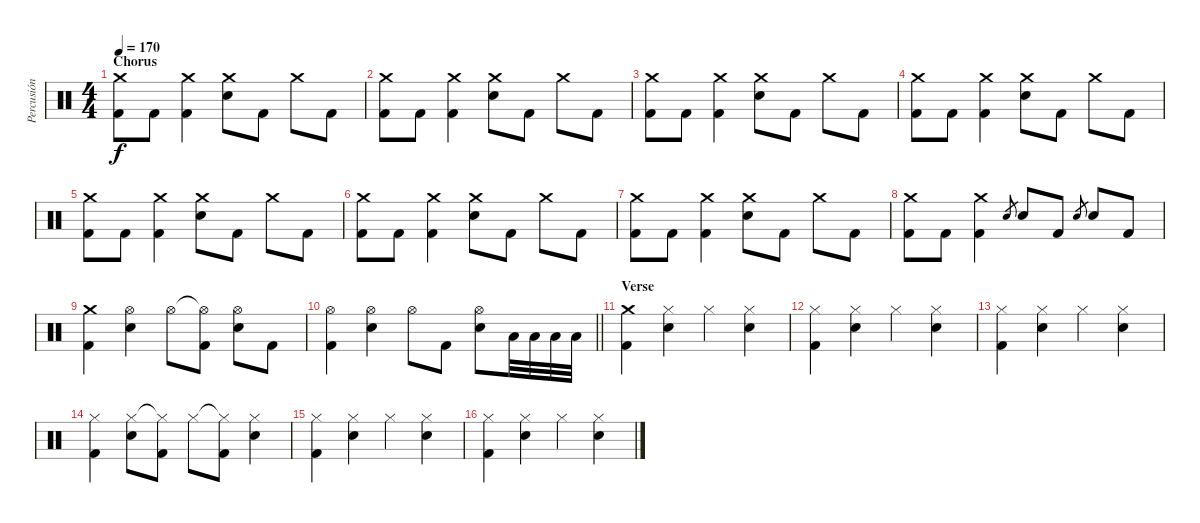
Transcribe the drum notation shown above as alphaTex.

\track ("Percusión" "Percusión") {instrument percussion}
\staff {score}
\articulation defaults
\ts (4 4)
\section ("" "Chorus")
\tempo 170
\clef neutral
\ks c
("Crash medium (hit)" "Kick (hit) 2").8{dy f} "Kick (hit) 2".8 ("Crash medium (hit)" "Kick (hit) 2").4 ("Crash medium (hit)" "Electric Snare (hit)").8 "Kick (hit) 2".8 "Crash medium (hit)".8 "Kick (hit) 2".8 |
("Crash medium (hit)" "Kick (hit) 2").8 "Kick (hit) 2".8 ("Crash medium (hit)" "Kick (hit) 2").4 ("Crash medium (hit)" "Electric Snare (hit)").8 "Kick (hit) 2".8 "Crash medium (hit)".8 "Kick (hit) 2".8 |
("Crash medium (hit)" "Kick (hit) 2").8 "Kick (hit) 2".8 ("Crash medium (hit)" "Kick (hit) 2").4 ("Crash medium (hit)" "Electric Snare (hit)").8 "Kick (hit) 2".8 "Crash medium (hit)".8 "Kick (hit) 2".8 |
("Crash medium (hit)" "Kick (hit) 2").8 "Kick (hit) 2".8 ("Crash medium (hit)" "Kick (hit) 2").4 ("Crash medium (hit)" "Electric Snare (hit)").8 "Kick (hit) 2".8 "Crash medium (hit)".8 "Kick (hit) 2".8 |
("Crash medium (hit)" "Kick (hit) 2").8 "Kick (hit) 2".8 ("Crash medium (hit)" "Kick (hit) 2").4 ("Crash medium (hit)" "Electric Snare (hit)").8 "Kick (hit) 2".8 "Crash medium (hit)".8 "Kick (hit) 2".8 |
("Crash medium (hit)" "Kick (hit) 2").8 "Kick (hit) 2".8 ("Crash medium (hit)" "Kick (hit) 2").4 ("Crash medium (hit)" "Electric Snare (hit)").8 "Kick (hit) 2".8 "Crash medium (hit)".8 "Kick (hit) 2".8 |
("Crash medium (hit)" "Kick (hit) 2").8 "Kick (hit) 2".8 ("Crash medium (hit)" "Kick (hit) 2").4 ("Crash medium (hit)" "Electric Snare (hit)").8 "Kick (hit) 2".8 "Crash medium (hit)".8 "Kick (hit) 2".8 |
("Crash medium (hit)" "Kick (hit) 2").8 "Kick (hit) 2".8 ("Crash medium (hit)" "Kick (hit) 2").4 "Electric Snare (hit)".8{gr} "Electric Snare (hit)".8 "Kick (hit) 2".8 "Electric Snare (hit)".8{gr} "Electric Snare (hit)".8 "Kick (hit) 2".8 |
("Crash medium (hit)" "Kick (hit) 2").4 ("Hi-Hat (open)" "Electric Snare (hit)").4 "Hi-Hat (open)".8 ("Hi-Hat (open)"{t} "Kick (hit) 2").8 ("Hi-Hat (open)" "Electric Snare (hit)").8 "Kick (hit) 2".8 |
\barLineRight lightlight
("Hi-Hat (open)" "Kick (hit) 2").4 ("Hi-Hat (open)" "Electric Snare (hit)").4 "Hi-Hat (open)".8 "Kick (hit) 2".8 ("Hi-Hat (open)" "Electric Snare (hit)").8 "Low Floor Tom (hit)".32 "Low Floor Tom (hit)".32 "Low Floor Tom (hit)".32 "Low Floor Tom (hit)".32 |
\section ("" "Verse")
("Crash medium (hit)" "Kick (hit) 2").4 ("Hi-Hat (closed)" "Electric Snare (hit)").4 "Hi-Hat (closed)".4 ("Hi-Hat (closed)" "Electric Snare (hit)").4 |
("Hi-Hat (closed)" "Kick (hit) 2").4 ("Hi-Hat (closed)" "Electric Snare (hit)").4 "Hi-Hat (closed)".4 ("Hi-Hat (closed)" "Electric Snare (hit)").4 |
("Hi-Hat (closed)" "Kick (hit) 2").4 ("Hi-Hat (closed)" "Electric Snare (hit)").4 "Hi-Hat (closed)".4 ("Hi-Hat (closed)" "Electric Snare (hit)").4 |
("Hi-Hat (closed)" "Kick (hit) 2").4 ("Hi-Hat (closed)" "Electric Snare (hit)").8 ("Hi-Hat (closed)"{t} "Kick (hit) 2").8 "Hi-Hat (closed)".8 ("Hi-Hat (closed)"{t} "Kick (hit) 2").8 ("Hi-Hat (closed)" "Electric Snare (hit)").4 |
("Hi-Hat (closed)" "Kick (hit) 2").4 ("Hi-Hat (closed)" "Electric Snare (hit)").4 "Hi-Hat (closed)".4 ("Hi-Hat (closed)" "Electric Snare (hit)").4 |
("Hi-Hat (closed)" "Kick (hit) 2").4 ("Hi-Hat (closed)" "Electric Snare (hit)").4 "Hi-Hat (closed)".4 ("Hi-Hat (closed)" "Electric Snare (hit)").4
